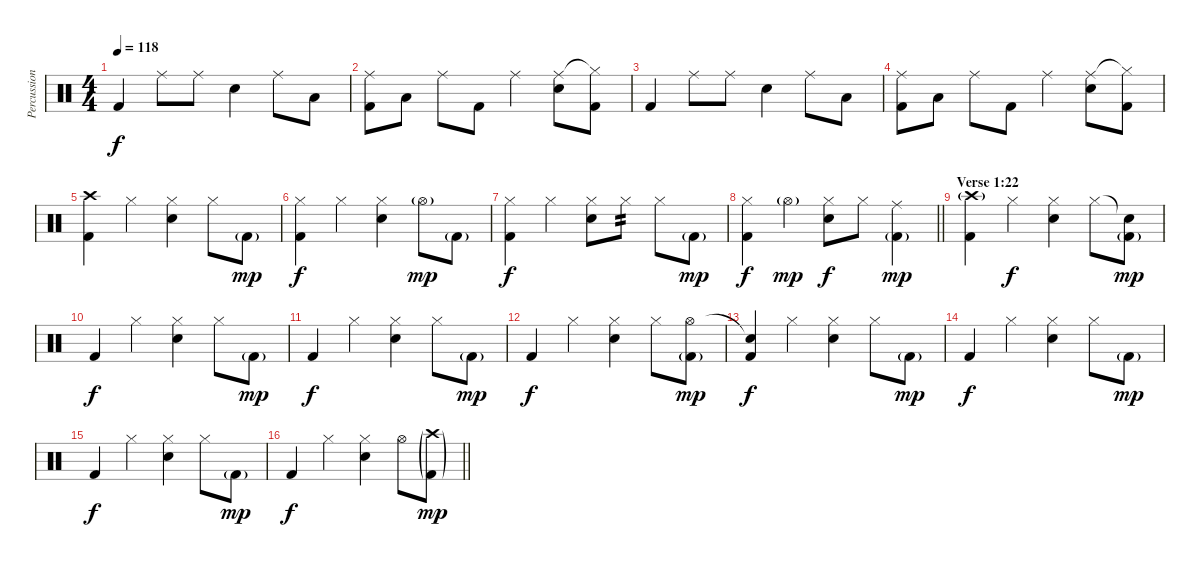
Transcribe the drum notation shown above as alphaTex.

\track ("Percussion" "Percussion") {instrument percussion}
\staff {score}
\articulation defaults
\ts (4 4)
\tempo 118
\clef neutral
\ks c "Kick (hit) 2".4{dy f} "Ride (middle)".8 "Ride (middle)".8 "Electric Snare (hit)".4 "Ride (middle)".8 "Low Floor Tom (hit)".8
|
("Ride (middle)" "Kick (hit) 2").8 "Low Floor Tom (hit)".8 "Ride (middle)".8 "Kick (hit) 2".8 "Ride (middle)".4 ("Ride (middle)" "Electric Snare (hit)").8 ("Hi-Hat (closed)"{t} "Kick (hit) 2").8 |
"Kick (hit) 2".4 "Ride (middle)".8 "Ride (middle)".8 "Electric Snare (hit)".4 "Ride (middle)".8 "Low Floor Tom (hit)".8 |
("Ride (middle)" "Kick (hit) 2").8 "Low Floor Tom (hit)".8 "Ride (middle)".8 "Kick (hit) 2".8 "Ride (middle)".4 ("Ride (middle)" "Electric Snare (hit)").8 ("Hi-Hat (closed)"{t} "Kick (hit) 2").8 |
("Crash high (hit)" "Kick (hit) 2").4 "Hi-Hat (closed)".4 ("Hi-Hat (closed)" "Electric Snare (hit)").4 "Hi-Hat (closed)".8 "Kick (hit) 2"{g}.8{dy mp} |
("Hi-Hat (closed)" "Kick (hit) 2").4{dy f} "Hi-Hat (closed)".4 ("Hi-Hat (closed)" "Electric Snare (hit)").4 "Hi-Hat (open)"{g}.8{dy mp} "Kick (hit) 2"{g}.8 |
("Hi-Hat (closed)" "Kick (hit) 2").4{dy f} "Hi-Hat (closed)".4 ("Hi-Hat (closed)" "Electric Snare (hit)").8 "Hi-Hat (closed)".8{tp 2} "Hi-Hat (closed)".8 "Kick (hit) 2"{g}.8{dy mp} |
\barLineRight lightlight
("Hi-Hat (closed)" "Kick (hit) 2").4{dy f} "Hi-Hat (open)"{g}.4{dy mp} ("Hi-Hat (closed)" "Electric Snare (hit)").8{dy f} "Hi-Hat (closed)".8 ("Ride (middle)" "Kick (hit) 2"{g}).4{dy mp} |
\section ("" "Verse 1:22")
("Crash high (hit)"{g} "Kick (hit) 2").4 "Hi-Hat (closed)".4{dy f} ("Hi-Hat (closed)" "Electric Snare (hit)").4 "Hi-Hat (closed)".8 ("Snare (hit)"{t} "Kick (hit) 2"{g}).8{dy mp} |
"Kick (hit) 2".4{dy f} "Hi-Hat (closed)".4 ("Hi-Hat (closed)" "Electric Snare (hit)").4 "Hi-Hat (closed)".8 "Kick (hit) 2"{g}.8{dy mp} |
"Kick (hit) 2".4{dy f} "Hi-Hat (closed)".4 ("Hi-Hat (closed)" "Electric Snare (hit)").4 "Hi-Hat (closed)".8 "Kick (hit) 2"{g}.8{dy mp} |
"Kick (hit) 2".4{dy f} "Hi-Hat (closed)".4 ("Hi-Hat (closed)" "Electric Snare (hit)").4 "Hi-Hat (closed)".8 ("Hi-Hat (open)" "Kick (hit) 2"{g}).8{dy mp} |
("Snare (hit)"{t} "Kick (hit) 2").4{dy f} "Hi-Hat (closed)".4 ("Hi-Hat (closed)" "Electric Snare (hit)").4 "Hi-Hat (closed)".8 "Kick (hit) 2"{g}.8{dy mp} |
"Kick (hit) 2".4{dy f} "Hi-Hat (closed)".4 ("Hi-Hat (closed)" "Electric Snare (hit)").4 "Hi-Hat (closed)".8 "Kick (hit) 2"{g}.8{dy mp} |
"Kick (hit) 2".4{dy f} "Hi-Hat (closed)".4 ("Hi-Hat (closed)" "Electric Snare (hit)").4 "Hi-Hat (closed)".8 "Kick (hit) 2"{g}.8{dy mp} |
\barLineRight lightlight "Kick (hit) 2".4{dy f} "Hi-Hat (closed)".4
("Hi-Hat (closed)" "Electric Snare (hit)").4 "Hi-Hat (open)".8 ("Crash high (hit)"{g} "Kick (hit) 2"{g}).8{dy mp}
